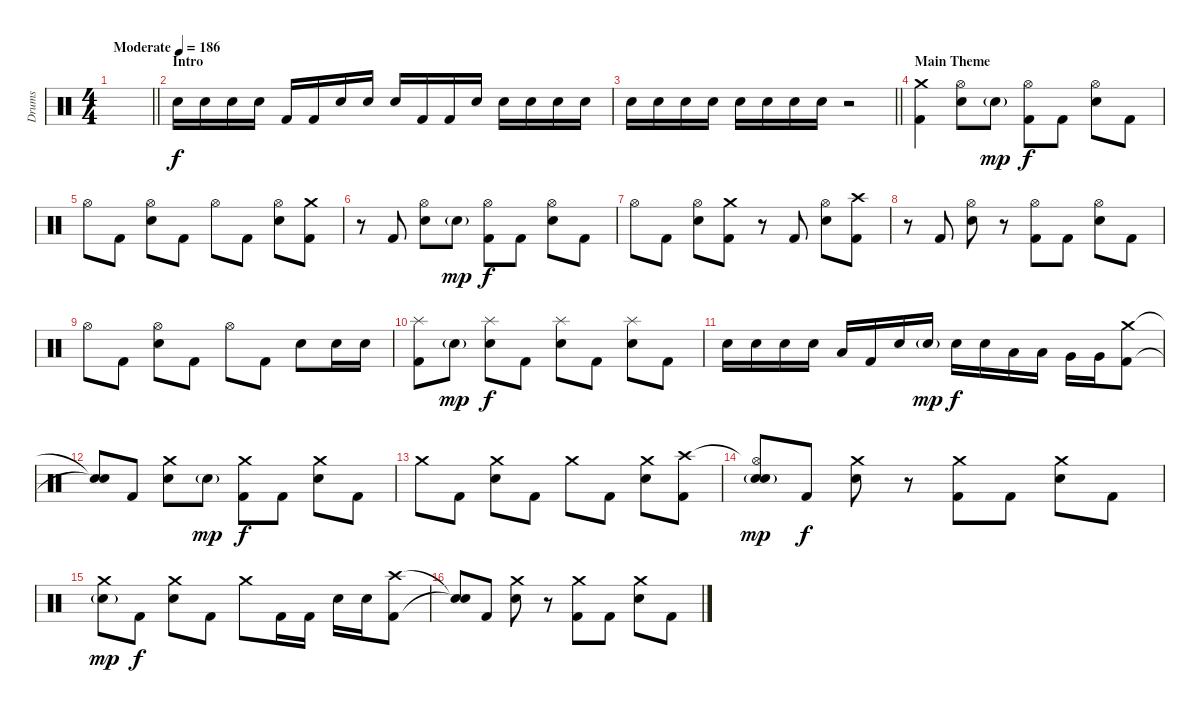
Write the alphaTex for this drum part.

\track ("Drums" "Drums") {instrument percussion}
\staff {score}
\articulation defaults
\ts (4 4)
\tempo (186 "Moderate")
\clef neutral
\barLineRight lightlight
\ks c
|
\section ("" "Intro")
"Electric Snare (hit)".16 "Electric Snare (hit)".16 "Electric Snare (hit)".16 "Electric Snare (hit)".16 "Kick (hit) 2".16 "Kick (hit) 2".16 "Electric Snare (hit)".16 "Electric Snare (hit)".16 "Electric Snare (hit)".16 "Kick (hit) 2".16 "Kick (hit) 2".16 "Electric Snare (hit)".16 "Electric Snare (hit)".16 "Electric Snare (hit)".16 "Electric Snare (hit)".16 "Electric Snare (hit)".16 |
\barLineRight lightlight "Electric Snare (hit)".16 "Electric Snare (hit)".16 "Electric Snare (hit)".16 "Electric Snare (hit)".16 "Electric Snare (hit)".16 "Electric Snare (hit)".16 "Electric Snare (hit)".16 "Electric Snare (hit)".16
r.2 |
\section ("" "Main Theme")
("Crash medium (hit)" "Kick (hit) 2").4 ("Hi-Hat (open)" "Electric Snare (hit)").8 "Electric Snare (hit)"{g}.8{dy mp} ("Hi-Hat (open)" "Kick (hit) 2").8{dy f} "Kick (hit) 2".8 ("Hi-Hat (open)" "Electric Snare (hit)").8 "Kick (hit) 2".8 |
"Hi-Hat (open)".8 "Kick (hit) 2".8 ("Hi-Hat (open)" "Electric Snare (hit)").8 "Kick (hit) 2".8 "Hi-Hat (open)".8 "Kick (hit) 2".8 ("Hi-Hat (open)" "Electric Snare (hit)").8 ("Crash medium (hit)" "Kick (hit) 2").8 |
r.8 "Kick (hit) 2".8 ("Hi-Hat (open)" "Electric Snare (hit)").8 "Electric Snare (hit)"{g}.8{dy mp} ("Hi-Hat (open)" "Kick (hit) 2").8{dy f} "Kick (hit) 2".8 ("Hi-Hat (open)" "Electric Snare (hit)").8 "Kick (hit) 2".8 |
"Hi-Hat (open)".8 "Kick (hit) 2".8 ("Hi-Hat (open)" "Electric Snare (hit)").8 ("Crash medium (hit)" "Kick (hit) 2").8 r.8 "Kick (hit) 2".8 ("Hi-Hat (open)" "Electric Snare (hit)").8 ("Crash high (hit)" "Kick (hit) 2").8 |
r.8 "Kick (hit) 2".8 ("Hi-Hat (open)" "Electric Snare (hit)").8 r.8 ("Hi-Hat (open)" "Kick (hit) 2").8 "Kick (hit) 2".8 ("Hi-Hat (open)" "Electric Snare (hit)").8 "Kick (hit) 2".8 |
"Hi-Hat (open)".8 "Kick (hit) 2".8 ("Hi-Hat (open)" "Electric Snare (hit)").8 "Kick (hit) 2".8 "Hi-Hat (open)".8 "Kick (hit) 2".8 "Electric Snare (hit)".8 "Electric Snare (hit)".16 "Electric Snare (hit)".16 |
("Splash (hit)" "Kick (hit) 2").8 "Electric Snare (hit)"{g}.8{dy mp} ("Splash (hit)" "Electric Snare (hit)").8{dy f} "Kick (hit) 2".8 ("Splash (hit)" "Electric Snare (hit)").8 "Kick (hit) 2".8 ("Splash (hit)" "Electric Snare (hit)").8 "Kick (hit) 2".8 |
"Electric Snare (hit)".16 "Electric Snare (hit)".16 "Electric Snare (hit)".16 "Electric Snare (hit)".16 "Low Tom (hit)".16 "Kick (hit) 2".16 "Electric Snare (hit)".16 "Electric Snare (hit)"{g}.16{dy mp} "Electric Snare (hit)".16{dy f} "Electric Snare (hit)".16 "Low Tom (hit)".16 "Low Tom (hit)".16 "Very Low Tom (hit)".16 "Very Low Tom (hit)".16 ("Crash medium (hit)" "Kick (hit) 2").8 |
("Snare (hit)"{t} "Snare (hit)"{t}).8 "Kick (hit) 2".8 ("Crash medium (hit)" "Electric Snare (hit)").8 "Electric Snare (hit)"{g}.8{dy mp} ("Crash medium (hit)" "Kick (hit) 2").8{dy f} "Kick (hit) 2".8 ("Crash medium (hit)" "Electric Snare (hit)").8 "Kick (hit) 2".8 |
"Crash medium (hit)".8 "Kick (hit) 2".8 ("Crash medium (hit)" "Electric Snare (hit)").8 "Kick (hit) 2".8 "Crash medium (hit)".8 "Kick (hit) 2".8 ("Crash medium (hit)" "Electric Snare (hit)").8 ("Crash high (hit)" "Kick (hit) 2").8 |
("Hi-Hat (open)"{t} "Electric Snare (hit)"{g} "Snare (hit)").8{dy mp} "Kick (hit) 2".8{dy f} ("Crash medium (hit)" "Electric Snare (hit)").8 r.8 ("Crash medium (hit)" "Kick (hit) 2").8 "Kick (hit) 2".8 ("Crash medium (hit)" "Electric Snare (hit)").8 "Kick (hit) 2".8 |
("Crash medium (hit)" "Electric Snare (hit)"{g}).8{dy mp} "Kick (hit) 2".8{dy f} ("Crash medium (hit)" "Electric Snare (hit)").8 "Kick (hit) 2".8 "Crash medium (hit)".8 "Kick (hit) 2".16 "Kick (hit) 2".16 "Electric Snare (hit)".16 "Electric Snare (hit)".16 ("Crash high (hit)" "Kick (hit) 2").8 |
("Snare (hit)"{t} "Snare (hit)"{t}).8 "Kick (hit) 2".8 ("Crash medium (hit)" "Electric Snare (hit)").8 r.8 ("Crash medium (hit)" "Kick (hit) 2").8 "Kick (hit) 2".8 ("Crash medium (hit)" "Electric Snare (hit)").8 "Kick (hit) 2".8
